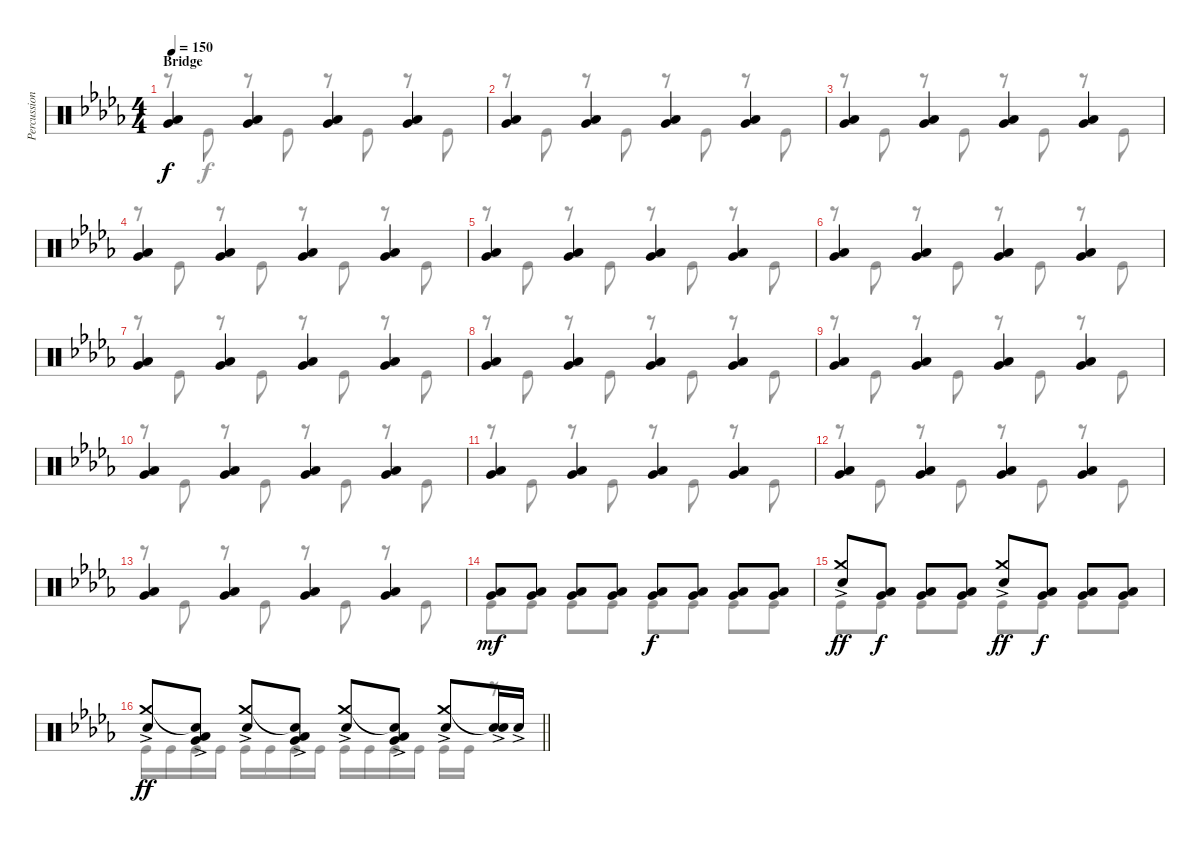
\track ("Percussion" "Percussion") {instrument percussion}
\staff {score}
\articulation defaults
\voice
\ts (4 4)
\section ("" "Bridge")
\tempo 150
\clef neutral
\ks bbminor
("Low Tom (hit)" "Very Low Tom (hit)").4{dy f} ("Low Tom (hit)" "Very Low Tom (hit)").4 ("Low Tom (hit)" "Very Low Tom (hit)").4 ("Low Tom (hit)" "Very Low Tom (hit)").4 |
("Low Tom (hit)" "Very Low Tom (hit)").4 ("Low Tom (hit)" "Very Low Tom (hit)").4 ("Low Tom (hit)" "Very Low Tom (hit)").4 ("Low Tom (hit)" "Very Low Tom (hit)").4 |
("Low Tom (hit)" "Very Low Tom (hit)").4 ("Low Tom (hit)" "Very Low Tom (hit)").4 ("Low Tom (hit)" "Very Low Tom (hit)").4 ("Low Tom (hit)" "Very Low Tom (hit)").4 |
("Low Tom (hit)" "Very Low Tom (hit)").4 ("Low Tom (hit)" "Very Low Tom (hit)").4 ("Low Tom (hit)" "Very Low Tom (hit)").4 ("Low Tom (hit)" "Very Low Tom (hit)").4 |
("Low Tom (hit)" "Very Low Tom (hit)").4 ("Low Tom (hit)" "Very Low Tom (hit)").4 ("Low Tom (hit)" "Very Low Tom (hit)").4 ("Low Tom (hit)" "Very Low Tom (hit)").4 |
("Low Tom (hit)" "Very Low Tom (hit)").4 ("Low Tom (hit)" "Very Low Tom (hit)").4 ("Low Tom (hit)" "Very Low Tom (hit)").4 ("Low Tom (hit)" "Very Low Tom (hit)").4 |
("Low Tom (hit)" "Very Low Tom (hit)").4 ("Low Tom (hit)" "Very Low Tom (hit)").4 ("Low Tom (hit)" "Very Low Tom (hit)").4 ("Low Tom (hit)" "Very Low Tom (hit)").4 |
("Low Tom (hit)" "Very Low Tom (hit)").4 ("Low Tom (hit)" "Very Low Tom (hit)").4 ("Low Tom (hit)" "Very Low Tom (hit)").4 ("Low Tom (hit)" "Very Low Tom (hit)").4 |
("Low Tom (hit)" "Very Low Tom (hit)").4 ("Low Tom (hit)" "Very Low Tom (hit)").4 ("Low Tom (hit)" "Very Low Tom (hit)").4 ("Low Tom (hit)" "Very Low Tom (hit)").4 |
("Low Tom (hit)" "Very Low Tom (hit)").4 ("Low Tom (hit)" "Very Low Tom (hit)").4 ("Low Tom (hit)" "Very Low Tom (hit)").4 ("Low Tom (hit)" "Very Low Tom (hit)").4 |
("Low Tom (hit)" "Very Low Tom (hit)").4 ("Low Tom (hit)" "Very Low Tom (hit)").4 ("Low Tom (hit)" "Very Low Tom (hit)").4 ("Low Tom (hit)" "Very Low Tom (hit)").4 |
("Low Tom (hit)" "Very Low Tom (hit)").4 ("Low Tom (hit)" "Very Low Tom (hit)").4 ("Low Tom (hit)" "Very Low Tom (hit)").4 ("Low Tom (hit)" "Very Low Tom (hit)").4 |
("Low Tom (hit)" "Very Low Tom (hit)").4 ("Low Tom (hit)" "Very Low Tom (hit)").4 ("Low Tom (hit)" "Very Low Tom (hit)").4 ("Low Tom (hit)" "Very Low Tom (hit)").4 |
("Low Tom (hit)" "Very Low Tom (hit)").8{dy mf} ("Low Tom (hit)" "Very Low Tom (hit)").8 ("Low Tom (hit)" "Very Low Tom (hit)").8 ("Low Tom (hit)" "Very Low Tom (hit)").8 ("Low Tom (hit)" "Very Low Tom (hit)").8{dy f} ("Low Tom (hit)" "Very Low Tom (hit)").8 ("Low Tom (hit)" "Very Low Tom (hit)").8 ("Low Tom (hit)" "Very Low Tom (hit)").8 |
("Crash medium (hit)"{ac} "Electric Snare (hit)"{ac}).8{dy ff} ("Low Tom (hit)" "Very Low Tom (hit)").8{dy f} ("Low Tom (hit)" "Very Low Tom (hit)").8 ("Low Tom (hit)" "Very Low Tom (hit)").8 ("Crash medium (hit)"{ac} "Electric Snare (hit)"{ac}).8{dy ff} ("Low Tom (hit)" "Very Low Tom (hit)").8{dy f} ("Low Tom (hit)" "Very Low Tom (hit)").8 ("Low Tom (hit)" "Very Low Tom (hit)").8 |
\barLineRight lightlight
("Crash medium (hit)"{ac} "Electric Snare (hit)"{ac}).8{dy ff} ("Snare (hit)"{t} "Low Tom (hit)"{ac} "Very Low Tom (hit)"{ac}).8 ("Crash medium (hit)"{ac} "Electric Snare (hit)"{ac}).8 ("Snare (hit)"{t} "Low Tom (hit)"{ac} "Very Low Tom (hit)"{ac}).8 ("Crash medium (hit)"{ac} "Electric Snare (hit)"{ac}).8 ("Snare (hit)"{t} "Low Tom (hit)"{ac} "Very Low Tom (hit)"{ac}).8 ("Crash medium (hit)"{ac} "Electric Snare (hit)"{ac}).8 ("Snare (hit)"{t} "Electric Snare (hit)"{ac}).16 "Electric Snare (hit)"{ac}.16
\voice
\clef neutral
\ottava regular
\simile none
\ks bbminor
r.8{dy f} "Kick (hit)".8 r.8 "Kick (hit)".8 r.8 "Kick (hit)".8 r.8 "Kick (hit)".8 |
r.8 "Kick (hit)".8 r.8 "Kick (hit)".8 r.8 "Kick (hit)".8 r.8 "Kick (hit)".8 |
r.8 "Kick (hit)".8 r.8 "Kick (hit)".8 r.8 "Kick (hit)".8 r.8 "Kick (hit)".8 |
r.8 "Kick (hit)".8 r.8 "Kick (hit)".8 r.8 "Kick (hit)".8 r.8 "Kick (hit)".8 |
r.8 "Kick (hit)".8 r.8 "Kick (hit)".8 r.8 "Kick (hit)".8 r.8 "Kick (hit)".8 |
r.8 "Kick (hit)".8 r.8 "Kick (hit)".8 r.8 "Kick (hit)".8 r.8 "Kick (hit)".8 |
r.8 "Kick (hit)".8 r.8 "Kick (hit)".8 r.8 "Kick (hit)".8 r.8 "Kick (hit)".8 |
r.8 "Kick (hit)".8 r.8 "Kick (hit)".8 r.8 "Kick (hit)".8 r.8 "Kick (hit)".8 |
r.8 "Kick (hit)".8 r.8 "Kick (hit)".8 r.8 "Kick (hit)".8 r.8 "Kick (hit)".8 |
r.8 "Kick (hit)".8 r.8 "Kick (hit)".8 r.8 "Kick (hit)".8 r.8 "Kick (hit)".8 |
r.8 "Kick (hit)".8 r.8 "Kick (hit)".8 r.8 "Kick (hit)".8 r.8 "Kick (hit)".8 |
r.8 "Kick (hit)".8 r.8 "Kick (hit)".8 r.8 "Kick (hit)".8 r.8 "Kick (hit)".8 |
r.8 "Kick (hit)".8 r.8 "Kick (hit)".8 r.8 "Kick (hit)".8 r.8 "Kick (hit)".8 |
"Kick (hit)".8 "Kick (hit)".8 "Kick (hit)".8 "Kick (hit)".8 "Kick (hit)".8 "Kick (hit)".8 "Kick (hit)".8 "Kick (hit)".8 |
"Kick (hit)".8 "Kick (hit)".8 "Kick (hit)".8 "Kick (hit)".8 "Kick (hit)".8 "Kick (hit)".8 "Kick (hit)".8 "Kick (hit)".8 |
\barLineRight lightlight "Kick (hit)".16 "Kick (hit)".16 "Kick (hit)".16 "Kick (hit)".16 "Kick (hit)".16 "Kick (hit)".16 "Kick (hit)".16 "Kick (hit)".16 "Kick (hit)".16 "Kick (hit)".16 "Kick (hit)".16 "Kick (hit)".16 "Kick (hit)".16 "Kick (hit)".16
r.8
